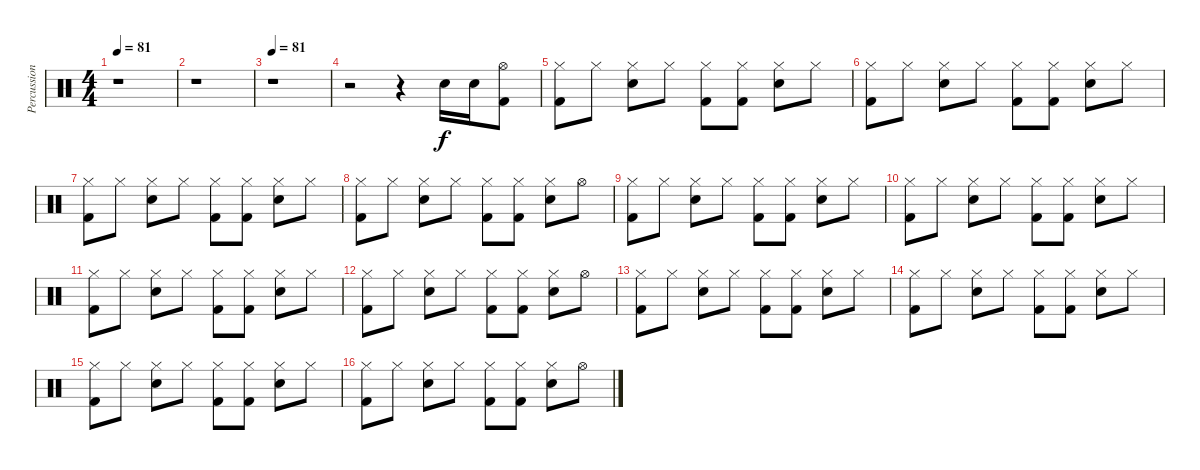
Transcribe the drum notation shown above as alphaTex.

\track ("Percussion" "Percussion") {instrument percussion}
\staff {score}
\articulation defaults
\ts (4 4)
\tempo 81
\clef neutral
\ks c
r.1{dy f} |
r.1 |
\tempo 81
r.1 |
r.2 r.4 "Snare (hit) 2".16 "Snare (hit) 2".16 ("Hi-Hat (open)" "Kick (hit) 2").8 |
("Hi-Hat (closed)" "Kick (hit) 2").8 "Hi-Hat (closed)".8 ("Hi-Hat (closed)" "Snare (hit) 2").8 "Hi-Hat (closed)".8 ("Hi-Hat (closed)" "Kick (hit) 2").8 ("Hi-Hat (closed)" "Kick (hit) 2").8 ("Hi-Hat (closed)" "Snare (hit) 2").8 "Hi-Hat (closed)".8 |
("Hi-Hat (closed)" "Kick (hit) 2").8 "Hi-Hat (closed)".8 ("Hi-Hat (closed)" "Snare (hit) 2").8 "Hi-Hat (closed)".8 ("Hi-Hat (closed)" "Kick (hit) 2").8 ("Hi-Hat (closed)" "Kick (hit) 2").8 ("Hi-Hat (closed)" "Snare (hit) 2").8 "Hi-Hat (closed)".8 |
("Hi-Hat (closed)" "Kick (hit) 2").8 "Hi-Hat (closed)".8 ("Hi-Hat (closed)" "Snare (hit) 2").8 "Hi-Hat (closed)".8 ("Hi-Hat (closed)" "Kick (hit) 2").8 ("Hi-Hat (closed)" "Kick (hit) 2").8 ("Hi-Hat (closed)" "Snare (hit) 2").8 "Hi-Hat (closed)".8 |
("Hi-Hat (closed)" "Kick (hit) 2").8 "Hi-Hat (closed)".8 ("Hi-Hat (closed)" "Snare (hit) 2").8 "Hi-Hat (closed)".8 ("Hi-Hat (closed)" "Kick (hit) 2").8 ("Hi-Hat (closed)" "Kick (hit) 2").8 ("Hi-Hat (closed)" "Snare (hit) 2").8 "Hi-Hat (open)".8 |
("Hi-Hat (closed)" "Kick (hit) 2").8 "Hi-Hat (closed)".8 ("Hi-Hat (closed)" "Snare (hit) 2").8 "Hi-Hat (closed)".8 ("Hi-Hat (closed)" "Kick (hit) 2").8 ("Hi-Hat (closed)" "Kick (hit) 2").8 ("Hi-Hat (closed)" "Snare (hit) 2").8 "Hi-Hat (closed)".8 |
("Hi-Hat (closed)" "Kick (hit) 2").8 "Hi-Hat (closed)".8 ("Hi-Hat (closed)" "Snare (hit) 2").8 "Hi-Hat (closed)".8 ("Hi-Hat (closed)" "Kick (hit) 2").8 ("Hi-Hat (closed)" "Kick (hit) 2").8 ("Hi-Hat (closed)" "Snare (hit) 2").8 "Hi-Hat (closed)".8 |
("Hi-Hat (closed)" "Kick (hit) 2").8 "Hi-Hat (closed)".8 ("Hi-Hat (closed)" "Snare (hit) 2").8 "Hi-Hat (closed)".8 ("Hi-Hat (closed)" "Kick (hit) 2").8 ("Hi-Hat (closed)" "Kick (hit) 2").8 ("Hi-Hat (closed)" "Snare (hit) 2").8 "Hi-Hat (closed)".8 |
("Hi-Hat (closed)" "Kick (hit) 2").8 "Hi-Hat (closed)".8 ("Hi-Hat (closed)" "Snare (hit) 2").8 "Hi-Hat (closed)".8 ("Hi-Hat (closed)" "Kick (hit) 2").8 ("Hi-Hat (closed)" "Kick (hit) 2").8 ("Hi-Hat (closed)" "Snare (hit) 2").8 "Hi-Hat (open)".8 |
("Hi-Hat (closed)" "Kick (hit) 2").8 "Hi-Hat (closed)".8 ("Hi-Hat (closed)" "Snare (hit) 2").8 "Hi-Hat (closed)".8 ("Hi-Hat (closed)" "Kick (hit) 2").8 ("Hi-Hat (closed)" "Kick (hit) 2").8 ("Hi-Hat (closed)" "Snare (hit) 2").8 "Hi-Hat (closed)".8 |
("Hi-Hat (closed)" "Kick (hit) 2").8 "Hi-Hat (closed)".8 ("Hi-Hat (closed)" "Snare (hit) 2").8 "Hi-Hat (closed)".8 ("Hi-Hat (closed)" "Kick (hit) 2").8 ("Hi-Hat (closed)" "Kick (hit) 2").8 ("Hi-Hat (closed)" "Snare (hit) 2").8 "Hi-Hat (closed)".8 |
("Hi-Hat (closed)" "Kick (hit) 2").8 "Hi-Hat (closed)".8 ("Hi-Hat (closed)" "Snare (hit) 2").8 "Hi-Hat (closed)".8 ("Hi-Hat (closed)" "Kick (hit) 2").8 ("Hi-Hat (closed)" "Kick (hit) 2").8 ("Hi-Hat (closed)" "Snare (hit) 2").8 "Hi-Hat (closed)".8 |
("Hi-Hat (closed)" "Kick (hit) 2").8 "Hi-Hat (closed)".8 ("Hi-Hat (closed)" "Snare (hit) 2").8 "Hi-Hat (closed)".8 ("Hi-Hat (closed)" "Kick (hit) 2").8 ("Hi-Hat (closed)" "Kick (hit) 2").8 ("Hi-Hat (closed)" "Snare (hit) 2").8 "Hi-Hat (open)".8
